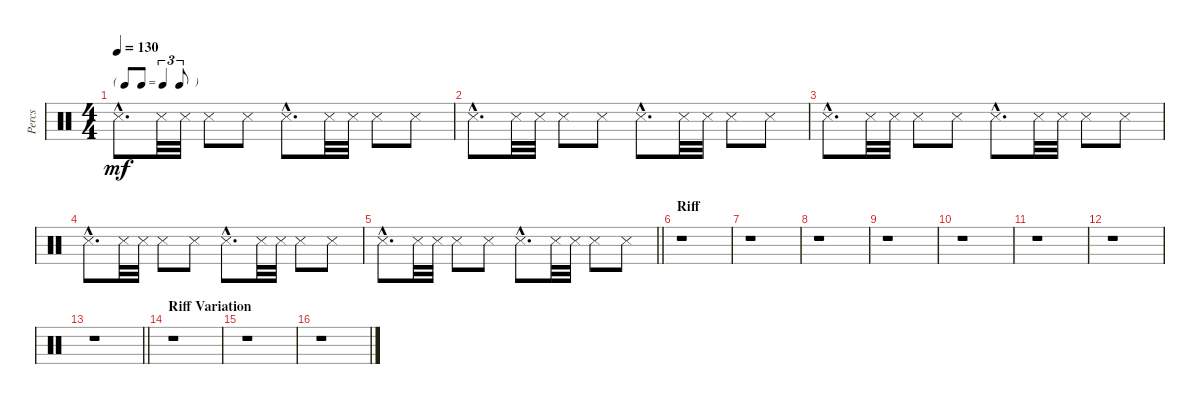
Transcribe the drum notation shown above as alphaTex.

\track ("Percs" "Percs") {instrument percussion}
\staff {score}
\articulation defaults
\ts (4 4)
\tf triplet8th
\tempo 130
\clef neutral
\ks c "Snare (side stick) 3"{hac}.8{d dy mf} "Snare (side stick) 3".32 "Snare (side stick) 3".32 "Snare (side stick) 3".8 "Snare (side stick) 3".8 "Snare (side stick) 3"{hac}.8{d} "Snare (side stick) 3".32 "Snare (side stick) 3".32 "Snare (side stick) 3".8 "Snare (side stick) 3".8
|
"Snare (side stick) 3"{hac}.8{d} "Snare (side stick) 3".32 "Snare (side stick) 3".32 "Snare (side stick) 3".8 "Snare (side stick) 3".8 "Snare (side stick) 3"{hac}.8{d} "Snare (side stick) 3".32 "Snare (side stick) 3".32 "Snare (side stick) 3".8 "Snare (side stick) 3".8 |
"Snare (side stick) 3"{hac}.8{d} "Snare (side stick) 3".32 "Snare (side stick) 3".32 "Snare (side stick) 3".8 "Snare (side stick) 3".8 "Snare (side stick) 3"{hac}.8{d} "Snare (side stick) 3".32 "Snare (side stick) 3".32 "Snare (side stick) 3".8 "Snare (side stick) 3".8 |
"Snare (side stick) 3"{hac}.8{d} "Snare (side stick) 3".32 "Snare (side stick) 3".32 "Snare (side stick) 3".8 "Snare (side stick) 3".8 "Snare (side stick) 3"{hac}.8{d} "Snare (side stick) 3".32 "Snare (side stick) 3".32 "Snare (side stick) 3".8 "Snare (side stick) 3".8 |
\barLineRight lightlight "Snare (side stick) 3"{hac}.8{d} "Snare (side stick) 3".32 "Snare (side stick) 3".32 "Snare (side stick) 3".8 "Snare (side stick) 3".8 "Snare (side stick) 3"{hac}.8{d} "Snare (side stick) 3".32 "Snare (side stick) 3".32 "Snare (side stick) 3".8 "Snare (side stick) 3".8
|
\section ("" "Riff")
r.1 |
r.1 |
r.1 |
r.1 |
r.1 |
r.1 |
r.1 |
\barLineRight lightlight
r.1 |
\section ("" "Riff Variation")
r.1 |
r.1 |
r.1
